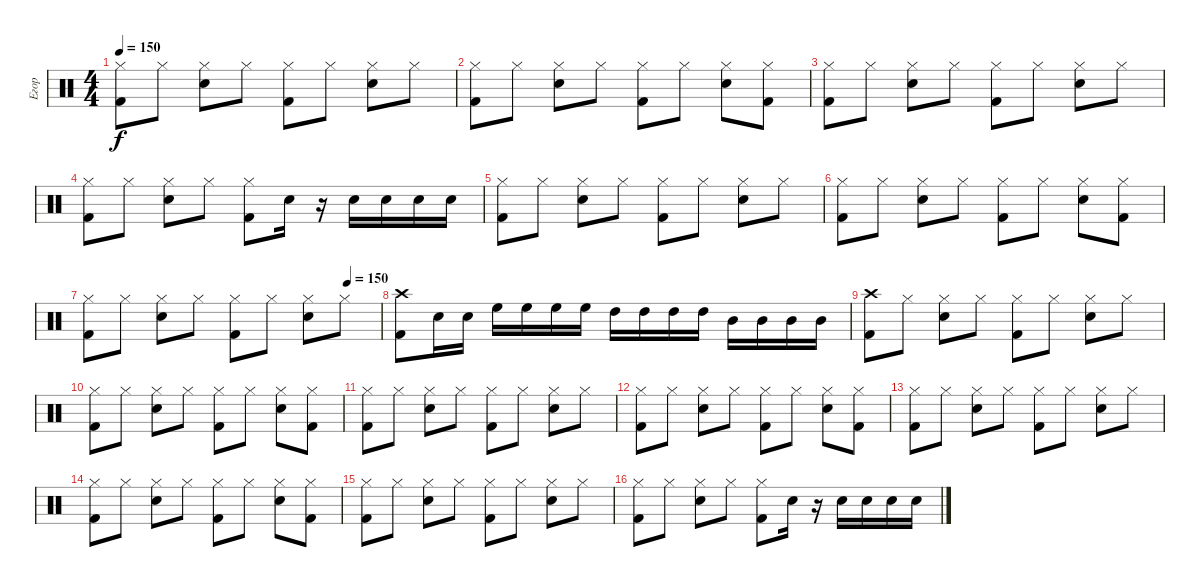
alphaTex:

\track ("Егор" "Егор") {instrument percussion}
\staff {score}
\articulation defaults
\ts (4 4)
\tempo 150
\clef neutral
\ks c
("Hi-Hat (closed)" "Kick (hit) 2").8{dy f} "Hi-Hat (closed)".8 ("Hi-Hat (closed)" "Snare (hit) 2").8 "Hi-Hat (closed)".8 ("Hi-Hat (closed)" "Kick (hit) 2").8 "Hi-Hat (closed)".8 ("Hi-Hat (closed)" "Snare (hit) 2").8 "Hi-Hat (closed)".8 |
("Hi-Hat (closed)" "Kick (hit) 2").8 "Hi-Hat (closed)".8 ("Hi-Hat (closed)" "Snare (hit) 2").8 "Hi-Hat (closed)".8 ("Hi-Hat (closed)" "Kick (hit) 2").8 "Hi-Hat (closed)".8 ("Hi-Hat (closed)" "Snare (hit) 2").8 ("Hi-Hat (closed)" "Kick (hit) 2").8 |
("Hi-Hat (closed)" "Kick (hit) 2").8 "Hi-Hat (closed)".8 ("Hi-Hat (closed)" "Snare (hit) 2").8 "Hi-Hat (closed)".8 ("Hi-Hat (closed)" "Kick (hit) 2").8 "Hi-Hat (closed)".8 ("Hi-Hat (closed)" "Snare (hit) 2").8 "Hi-Hat (closed)".8 |
("Hi-Hat (closed)" "Kick (hit) 2").8 "Hi-Hat (closed)".8 ("Hi-Hat (closed)" "Snare (hit) 2").8 "Hi-Hat (closed)".8 ("Hi-Hat (closed)" "Kick (hit) 2").8 "Snare (hit) 2".16 r.16 "Snare (hit) 2".16 "Snare (hit) 2".16 "Snare (hit) 2".16 "Snare (hit) 2".16 |
("Hi-Hat (closed)" "Kick (hit) 2").8 "Hi-Hat (closed)".8 ("Hi-Hat (closed)" "Snare (hit) 2").8 "Hi-Hat (closed)".8 ("Hi-Hat (closed)" "Kick (hit) 2").8 "Hi-Hat (closed)".8 ("Hi-Hat (closed)" "Snare (hit) 2").8 "Hi-Hat (closed)".8 |
("Hi-Hat (closed)" "Kick (hit) 2").8 "Hi-Hat (closed)".8 ("Hi-Hat (closed)" "Snare (hit) 2").8 "Hi-Hat (closed)".8 ("Hi-Hat (closed)" "Kick (hit) 2").8 "Hi-Hat (closed)".8 ("Hi-Hat (closed)" "Snare (hit) 2").8 ("Hi-Hat (closed)" "Kick (hit) 2").8 |
\tempo (150 0.8875)
("Hi-Hat (closed)" "Kick (hit) 2").8 "Hi-Hat (closed)".8 ("Hi-Hat (closed)" "Snare (hit) 2").8 "Hi-Hat (closed)".8 ("Hi-Hat (closed)" "Kick (hit) 2").8 "Hi-Hat (closed)".8 ("Hi-Hat (closed)" "Snare (hit) 2").8 "Hi-Hat (closed)".8 |
("Crash high (hit)" "Kick (hit) 2").8 "Snare (hit) 2".16 "Snare (hit) 2".16 "High Floor Tom (hit)".16 "High Floor Tom (hit)".16 "High Floor Tom (hit)".16 "High Floor Tom (hit)".16 "High Tom (hit)".16 "High Tom (hit)".16 "High Tom (hit)".16 "High Tom (hit)".16 "Mid Tom (hit)".16 "Mid Tom (hit)".16 "Mid Tom (hit)".16 "Mid Tom (hit)".16 |
("Crash high (hit)" "Kick (hit) 2").8 "Hi-Hat (closed)".8 ("Hi-Hat (closed)" "Snare (hit) 2").8 "Hi-Hat (closed)".8 ("Hi-Hat (closed)" "Kick (hit) 2").8 "Hi-Hat (closed)".8 ("Hi-Hat (closed)" "Snare (hit) 2").8 "Hi-Hat (closed)".8 |
("Hi-Hat (closed)" "Kick (hit) 2").8 "Hi-Hat (closed)".8 ("Hi-Hat (closed)" "Snare (hit) 2").8 "Hi-Hat (closed)".8 ("Hi-Hat (closed)" "Kick (hit) 2").8 "Hi-Hat (closed)".8 ("Hi-Hat (closed)" "Snare (hit) 2").8 ("Hi-Hat (closed)" "Kick (hit) 2").8 |
("Hi-Hat (closed)" "Kick (hit) 2").8 "Hi-Hat (closed)".8 ("Hi-Hat (closed)" "Snare (hit) 2").8 "Hi-Hat (closed)".8 ("Hi-Hat (closed)" "Kick (hit) 2").8 "Hi-Hat (closed)".8 ("Hi-Hat (closed)" "Snare (hit) 2").8 "Hi-Hat (closed)".8 |
("Hi-Hat (closed)" "Kick (hit) 2").8 "Hi-Hat (closed)".8 ("Hi-Hat (closed)" "Snare (hit) 2").8 "Hi-Hat (closed)".8 ("Hi-Hat (closed)" "Kick (hit) 2").8 "Hi-Hat (closed)".8 ("Hi-Hat (closed)" "Snare (hit) 2").8 ("Hi-Hat (closed)" "Kick (hit) 2").8 |
("Hi-Hat (closed)" "Kick (hit) 2").8 "Hi-Hat (closed)".8 ("Hi-Hat (closed)" "Snare (hit) 2").8 "Hi-Hat (closed)".8 ("Hi-Hat (closed)" "Kick (hit) 2").8 "Hi-Hat (closed)".8 ("Hi-Hat (closed)" "Snare (hit) 2").8 "Hi-Hat (closed)".8 |
("Hi-Hat (closed)" "Kick (hit) 2").8 "Hi-Hat (closed)".8 ("Hi-Hat (closed)" "Snare (hit) 2").8 "Hi-Hat (closed)".8 ("Hi-Hat (closed)" "Kick (hit) 2").8 "Hi-Hat (closed)".8 ("Hi-Hat (closed)" "Snare (hit) 2").8 ("Hi-Hat (closed)" "Kick (hit) 2").8 |
("Hi-Hat (closed)" "Kick (hit) 2").8 "Hi-Hat (closed)".8 ("Hi-Hat (closed)" "Snare (hit) 2").8 "Hi-Hat (closed)".8 ("Hi-Hat (closed)" "Kick (hit) 2").8 "Hi-Hat (closed)".8 ("Hi-Hat (closed)" "Snare (hit) 2").8 "Hi-Hat (closed)".8 |
("Hi-Hat (closed)" "Kick (hit) 2").8 "Hi-Hat (closed)".8 ("Hi-Hat (closed)" "Snare (hit) 2").8 "Hi-Hat (closed)".8 ("Hi-Hat (closed)" "Kick (hit) 2").8 "Snare (hit) 2".16 r.16 "Snare (hit) 2".16 "Snare (hit) 2".16 "Snare (hit) 2".16 "Snare (hit) 2".16
